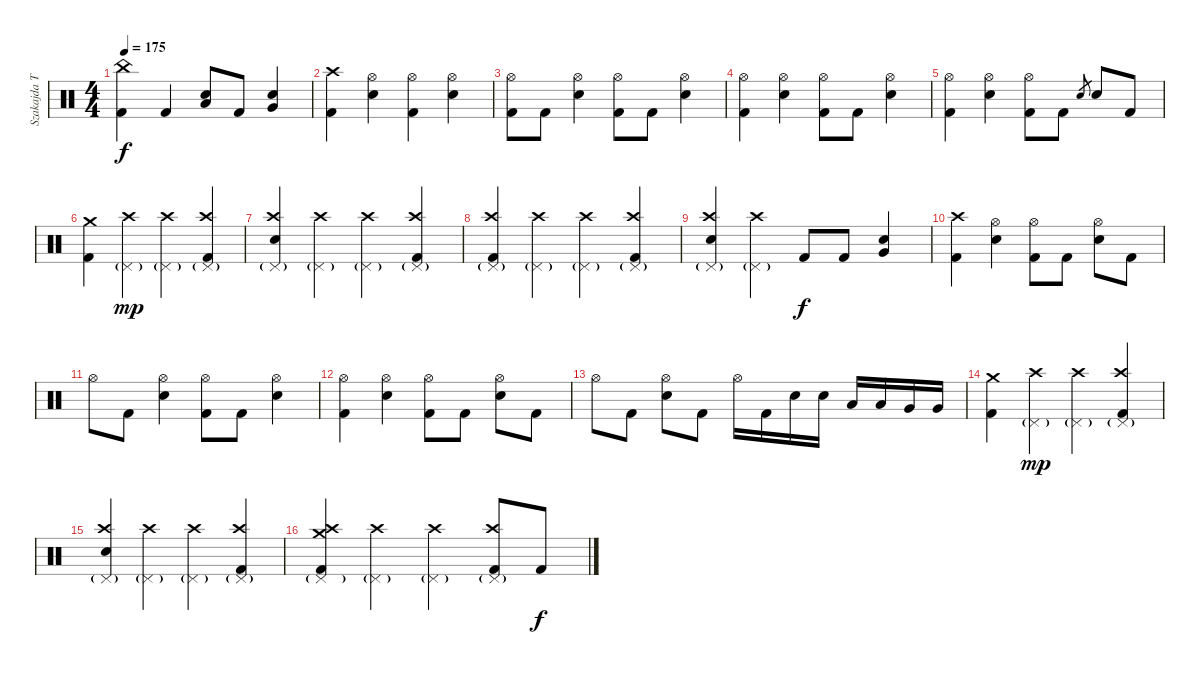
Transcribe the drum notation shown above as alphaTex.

\track ("Szakajda Tibi" "Szakajda T") {instrument percussion}
\staff {score}
\articulation defaults
\ts (4 4)
\tempo 175
\clef neutral
\ks c
("China (hit)" "Kick (hit) 2").4{dy f} "Kick (hit) 2".4 ("Low Tom (hit)" "Snare (hit) 2").8 "Kick (hit) 2".8 ("Very Low Tom (hit)" "Snare (hit) 2").4 |
("Crash high (hit)" "Kick (hit) 2").4 ("Hi-Hat (open)" "Snare (hit) 2").4 ("Hi-Hat (open)" "Kick (hit) 2").4 ("Hi-Hat (open)" "Snare (hit) 2").4 |
("Hi-Hat (open)" "Kick (hit) 2").8 "Kick (hit) 2".8 ("Hi-Hat (open)" "Snare (hit) 2").4 ("Hi-Hat (open)" "Kick (hit) 2").8 "Kick (hit) 2".8 ("Hi-Hat (open)" "Snare (hit) 2").4 |
("Hi-Hat (open)" "Kick (hit) 2").4 ("Hi-Hat (open)" "Snare (hit) 2").4 ("Hi-Hat (open)" "Kick (hit) 2").8 "Kick (hit) 2".8 ("Hi-Hat (open)" "Snare (hit) 2").4 |
("Hi-Hat (open)" "Kick (hit) 2").4 ("Hi-Hat (open)" "Snare (hit) 2").4 ("Hi-Hat (open)" "Kick (hit) 2").8 "Kick (hit) 2".8 "Snare (hit) 2".8{gr} "Snare (hit) 2".8 "Kick (hit) 2".8 |
("Crash medium (hit)" "Kick (hit) 2").4 ("Crash high (hit)" "Pedal Hi-Hat (hit)"{g}).4{dy mp} ("Crash high (hit)" "Pedal Hi-Hat (hit)"{g}).4 ("Crash high (hit)" "Pedal Hi-Hat (hit)"{g} "Kick (hit) 2").4 |
("Crash high (hit)" "Pedal Hi-Hat (hit)"{g} "Snare (hit) 2").4 ("Crash high (hit)" "Pedal Hi-Hat (hit)"{g}).4 ("Crash high (hit)" "Pedal Hi-Hat (hit)"{g}).4 ("Crash high (hit)" "Pedal Hi-Hat (hit)"{g} "Kick (hit) 2").4 |
("Crash high (hit)" "Pedal Hi-Hat (hit)"{g} "Kick (hit) 2").4 ("Crash high (hit)" "Pedal Hi-Hat (hit)"{g}).4 ("Crash high (hit)" "Pedal Hi-Hat (hit)"{g}).4 ("Crash high (hit)" "Pedal Hi-Hat (hit)"{g} "Kick (hit) 2").4 |
("Crash high (hit)" "Pedal Hi-Hat (hit)"{g} "Snare (hit) 2").4 ("Crash high (hit)" "Pedal Hi-Hat (hit)"{g}).4 "Kick (hit) 2".8{dy f} "Kick (hit) 2".8 ("Very Low Tom (hit)" "Snare (hit) 2").4 |
("Crash high (hit)" "Kick (hit) 2").4 ("Hi-Hat (open)" "Snare (hit) 2").4 ("Hi-Hat (open)" "Kick (hit) 2").8 "Kick (hit) 2".8 ("Hi-Hat (open)" "Snare (hit) 2").8 "Kick (hit) 2".8 |
"Hi-Hat (open)".8 "Kick (hit) 2".8 ("Hi-Hat (open)" "Snare (hit) 2").4 ("Hi-Hat (open)" "Kick (hit) 2").8 "Kick (hit) 2".8 ("Hi-Hat (open)" "Snare (hit) 2").4 |
("Hi-Hat (open)" "Kick (hit) 2").4 ("Hi-Hat (open)" "Snare (hit) 2").4 ("Hi-Hat (open)" "Kick (hit) 2").8 "Kick (hit) 2".8 ("Hi-Hat (open)" "Snare (hit) 2").8 "Kick (hit) 2".8 |
"Hi-Hat (open)".8 "Kick (hit) 2".8 ("Hi-Hat (open)" "Snare (hit) 2").8 "Kick (hit) 2".8 "Hi-Hat (open)".16 "Kick (hit) 2".16 "Snare (hit) 2".16 "Snare (hit) 2".16 "Low Tom (hit)".16 "Low Tom (hit)".16 "Very Low Tom (hit)".16 "Very Low Tom (hit)".16 |
("Crash medium (hit)" "Kick (hit) 2").4 ("Crash high (hit)" "Pedal Hi-Hat (hit)"{g}).4{dy mp} ("Crash high (hit)" "Pedal Hi-Hat (hit)"{g}).4 ("Crash high (hit)" "Pedal Hi-Hat (hit)"{g} "Kick (hit) 2").4 |
("Crash high (hit)" "Pedal Hi-Hat (hit)"{g} "Snare (hit) 2").4 ("Crash high (hit)" "Pedal Hi-Hat (hit)"{g}).4 ("Crash high (hit)" "Pedal Hi-Hat (hit)"{g}).4 ("Crash high (hit)" "Pedal Hi-Hat (hit)"{g} "Kick (hit) 2").4 |
("Crash high (hit)" "Pedal Hi-Hat (hit)"{g} "Crash medium (hit)" "Kick (hit) 2").4 ("Crash high (hit)" "Pedal Hi-Hat (hit)"{g}).4 ("Crash high (hit)" "Pedal Hi-Hat (hit)"{g}).4 ("Crash high (hit)" "Pedal Hi-Hat (hit)"{g} "Kick (hit) 2").8 "Kick (hit) 2".8{dy f}
